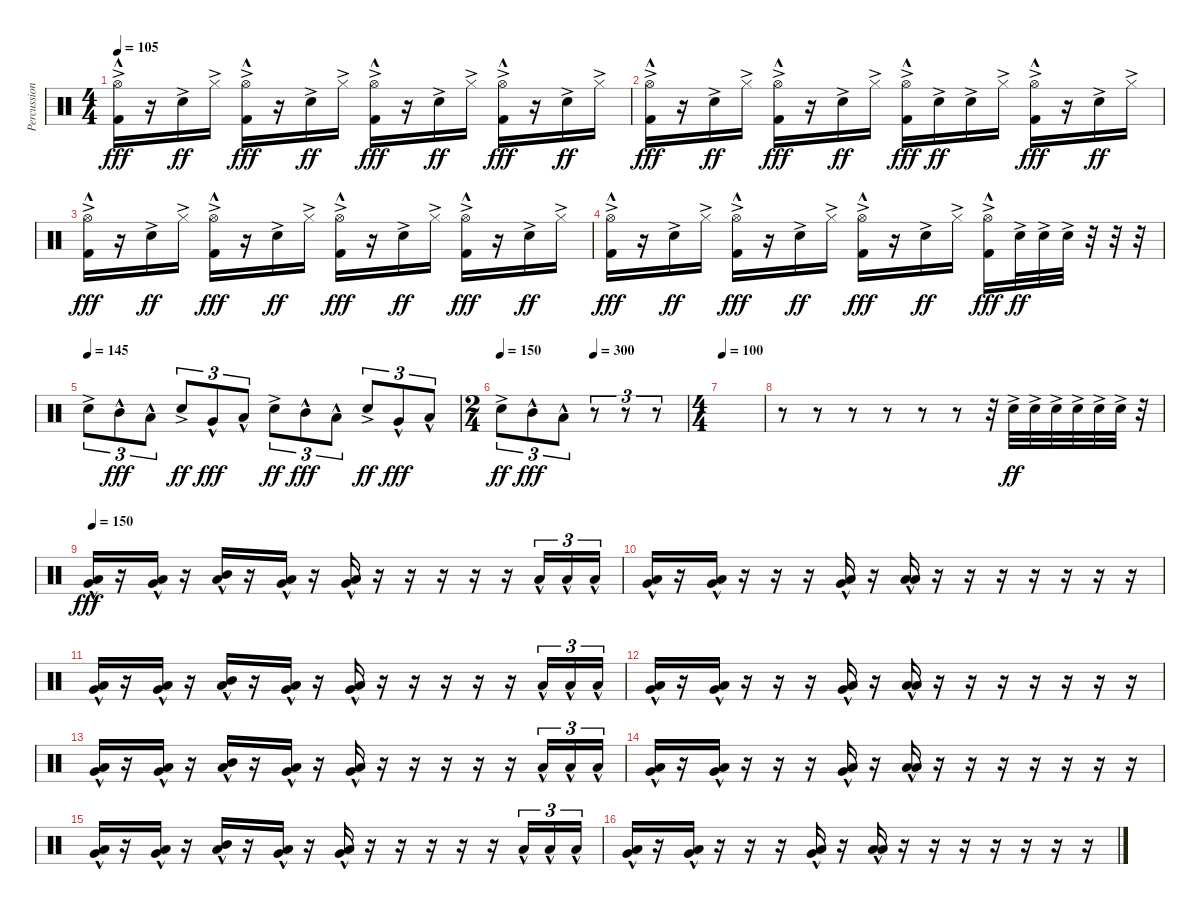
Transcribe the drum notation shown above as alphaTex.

\track ("Percussion" "Percussion") {instrument percussion}
\staff {score}
\articulation defaults
\ts (4 4)
\tempo 105
\clef neutral
\ks c
("Hi-Hat (open)"{ac} "Kick (hit) 2"{hac}).16{dy fff} r.16 "Snare (hit) 2"{ac}.16{dy ff} "Hi-Hat (closed)"{ac}.16 ("Hi-Hat (open)"{ac} "Kick (hit) 2"{hac}).16{dy fff} r.16 "Snare (hit) 2"{ac}.16{dy ff} "Hi-Hat (closed)"{ac}.16 ("Hi-Hat (open)"{ac} "Kick (hit) 2"{hac}).16{dy fff} r.16 "Snare (hit) 2"{ac}.16{dy ff} "Hi-Hat (closed)"{ac}.16 ("Hi-Hat (open)"{ac} "Kick (hit) 2"{hac}).16{dy fff} r.16 "Snare (hit) 2"{ac}.16{dy ff} "Hi-Hat (closed)"{ac}.16 |
("Hi-Hat (open)"{ac} "Kick (hit) 2"{hac}).16{dy fff} r.16 "Snare (hit) 2"{ac}.16{dy ff} "Hi-Hat (closed)"{ac}.16 ("Hi-Hat (open)"{ac} "Kick (hit) 2"{hac}).16{dy fff} r.16 "Snare (hit) 2"{ac}.16{dy ff} "Hi-Hat (closed)"{ac}.16 ("Hi-Hat (open)"{ac} "Kick (hit) 2"{hac}).16{dy fff} "Snare (hit) 2"{ac}.16{dy ff} "Snare (hit) 2"{ac}.16 "Hi-Hat (closed)"{ac}.16 ("Hi-Hat (open)"{ac} "Kick (hit) 2"{hac}).16{dy fff} r.16 "Snare (hit) 2"{ac}.16{dy ff} "Hi-Hat (closed)"{ac}.16 |
("Hi-Hat (open)"{ac} "Kick (hit) 2"{hac}).16{dy fff} r.16 "Snare (hit) 2"{ac}.16{dy ff} "Hi-Hat (closed)"{ac}.16 ("Hi-Hat (open)"{ac} "Kick (hit) 2"{hac}).16{dy fff} r.16 "Snare (hit) 2"{ac}.16{dy ff} "Hi-Hat (closed)"{ac}.16 ("Hi-Hat (open)"{ac} "Kick (hit) 2"{hac}).16{dy fff} r.16 "Snare (hit) 2"{ac}.16{dy ff} "Hi-Hat (closed)"{ac}.16 ("Hi-Hat (open)"{ac} "Kick (hit) 2"{hac}).16{dy fff} r.16 "Snare (hit) 2"{ac}.16{dy ff} "Hi-Hat (closed)"{ac}.16 |
("Hi-Hat (open)"{ac} "Kick (hit) 2"{hac}).16{dy fff} r.16 "Snare (hit) 2"{ac}.16{dy ff} "Hi-Hat (closed)"{ac}.16 ("Hi-Hat (open)"{ac} "Kick (hit) 2"{hac}).16{dy fff} r.16 "Snare (hit) 2"{ac}.16{dy ff} "Hi-Hat (closed)"{ac}.16 ("Hi-Hat (open)"{ac} "Kick (hit) 2"{hac}).16{dy fff} r.16 "Snare (hit) 2"{ac}.16{dy ff} "Hi-Hat (closed)"{ac}.16 ("Hi-Hat (open)"{ac} "Kick (hit) 2"{hac}).16{dy fff} "Snare (hit) 2"{ac}.32{dy ff} "Snare (hit) 2"{ac}.32 "Snare (hit) 2"{ac}.32 r.32 r.32 r.32 |
\tempo (145)
"Snare (hit) 2"{ac}.8{tu (3 2)} "Mid Tom (hit)"{hac}.8{tu (3 2) dy fff} "Low Tom (hit)"{hac}.8{tu (3 2)} "Snare (hit) 2"{ac}.8{tu (3 2) dy ff} "Very Low Tom (hit)"{hac}.8{tu (3 2) dy fff} "Low Floor Tom (hit)"{hac}.8{tu (3 2)} "Snare (hit) 2"{ac}.8{tu (3 2) dy ff} "Mid Tom (hit)"{hac}.8{tu (3 2) dy fff} "Low Tom (hit)"{hac}.8{tu (3 2)} "Snare (hit) 2"{ac}.8{tu (3 2) dy ff} "Very Low Tom (hit)"{hac}.8{tu (3 2) dy fff} "Low Floor Tom (hit)"{hac}.8{tu (3 2)} |
\ts (2 4)
\tempo 150
\tempo (300 0.5)
"Snare (hit) 2"{ac}.8{tu (3 2) dy ff} "Mid Tom (hit)"{hac}.8{tu (3 2) dy fff} "Low Tom (hit)"{hac}.8{tu (3 2)} r.8{tu (3 2)} r.8{tu (3 2)} r.8{tu (3 2)} |
\ts (4 4)
\tempo 100
|
r.8 r.8 r.8 r.8 r.8 r.8 r.32 "Snare (hit) 2"{ac}.32{dy ff} "Snare (hit) 2"{ac}.32 "Snare (hit) 2"{ac}.32 "Snare (hit) 2"{ac}.32 "Snare (hit) 2"{ac}.32 "Snare (hit) 2"{ac}.32 r.32 |
\tempo 150
("Very Low Tom (hit)"{hac} "Low Floor Tom (hit)"{hac}).16{dy fff} r.16 ("Very Low Tom (hit)"{hac} "Low Floor Tom (hit)"{hac}).16 r.16 ("Mid Tom (hit)"{hac} "Low Floor Tom (hit)"{hac}).16 r.16 ("Very Low Tom (hit)"{hac} "Low Floor Tom (hit)"{hac}).16 r.16 ("Very Low Tom (hit)"{hac} "Low Floor Tom (hit)"{hac}).16 r.16 r.16 r.16 r.16 r.16 "Low Floor Tom (hit)"{hac}.16{tu (3 2)} "Low Floor Tom (hit)"{hac}.16{tu (3 2)} "Low Floor Tom (hit)"{hac}.16{tu (3 2)} |
("Very Low Tom (hit)"{hac} "Low Floor Tom (hit)"{hac}).16 r.16 ("Very Low Tom (hit)"{hac} "Low Floor Tom (hit)"{hac}).16 r.16 r.16 r.16 ("Very Low Tom (hit)"{hac} "Low Floor Tom (hit)"{hac}).16 r.16 ("Low Floor Tom (hit)"{hac} "Low Floor Tom (hit)"{hac}).16 r.16 r.16 r.16 r.16 r.16 r.16 r.16 |
("Very Low Tom (hit)"{hac} "Low Floor Tom (hit)"{hac}).16 r.16 ("Very Low Tom (hit)"{hac} "Low Floor Tom (hit)"{hac}).16 r.16 ("Mid Tom (hit)"{hac} "Low Floor Tom (hit)"{hac}).16 r.16 ("Very Low Tom (hit)"{hac} "Low Floor Tom (hit)"{hac}).16 r.16 ("Very Low Tom (hit)"{hac} "Low Floor Tom (hit)"{hac}).16 r.16 r.16 r.16 r.16 r.16 "Low Floor Tom (hit)"{hac}.16{tu (3 2)} "Low Floor Tom (hit)"{hac}.16{tu (3 2)} "Low Floor Tom (hit)"{hac}.16{tu (3 2)} |
("Very Low Tom (hit)"{hac} "Low Floor Tom (hit)"{hac}).16 r.16 ("Very Low Tom (hit)"{hac} "Low Floor Tom (hit)"{hac}).16 r.16 r.16 r.16 ("Very Low Tom (hit)"{hac} "Low Floor Tom (hit)"{hac}).16 r.16 ("Low Floor Tom (hit)"{hac} "Low Floor Tom (hit)"{hac}).16 r.16 r.16 r.16 r.16 r.16 r.16 r.16 |
("Very Low Tom (hit)"{hac} "Low Floor Tom (hit)"{hac}).16 r.16 ("Very Low Tom (hit)"{hac} "Low Floor Tom (hit)"{hac}).16 r.16 ("Mid Tom (hit)"{hac} "Low Floor Tom (hit)"{hac}).16 r.16 ("Very Low Tom (hit)"{hac} "Low Floor Tom (hit)"{hac}).16 r.16 ("Very Low Tom (hit)"{hac} "Low Floor Tom (hit)"{hac}).16 r.16 r.16 r.16 r.16 r.16 "Low Floor Tom (hit)"{hac}.16{tu (3 2)} "Low Floor Tom (hit)"{hac}.16{tu (3 2)} "Low Floor Tom (hit)"{hac}.16{tu (3 2)} |
("Very Low Tom (hit)"{hac} "Low Floor Tom (hit)"{hac}).16 r.16 ("Very Low Tom (hit)"{hac} "Low Floor Tom (hit)"{hac}).16 r.16 r.16 r.16 ("Very Low Tom (hit)"{hac} "Low Floor Tom (hit)"{hac}).16 r.16 ("Low Floor Tom (hit)"{hac} "Low Floor Tom (hit)"{hac}).16 r.16 r.16 r.16 r.16 r.16 r.16 r.16 |
("Very Low Tom (hit)"{hac} "Low Floor Tom (hit)"{hac}).16 r.16 ("Very Low Tom (hit)"{hac} "Low Floor Tom (hit)"{hac}).16 r.16 ("Mid Tom (hit)"{hac} "Low Floor Tom (hit)"{hac}).16 r.16 ("Very Low Tom (hit)"{hac} "Low Floor Tom (hit)"{hac}).16 r.16 ("Very Low Tom (hit)"{hac} "Low Floor Tom (hit)"{hac}).16 r.16 r.16 r.16 r.16 r.16 "Low Floor Tom (hit)"{hac}.16{tu (3 2)} "Low Floor Tom (hit)"{hac}.16{tu (3 2)} "Low Floor Tom (hit)"{hac}.16{tu (3 2)} |
("Very Low Tom (hit)"{hac} "Low Floor Tom (hit)"{hac}).16 r.16 ("Very Low Tom (hit)"{hac} "Low Floor Tom (hit)"{hac}).16 r.16 r.16 r.16 ("Very Low Tom (hit)"{hac} "Low Floor Tom (hit)"{hac}).16 r.16 ("Low Floor Tom (hit)"{hac} "Low Floor Tom (hit)"{hac}).16 r.16 r.16 r.16 r.16 r.16 r.16 r.16
